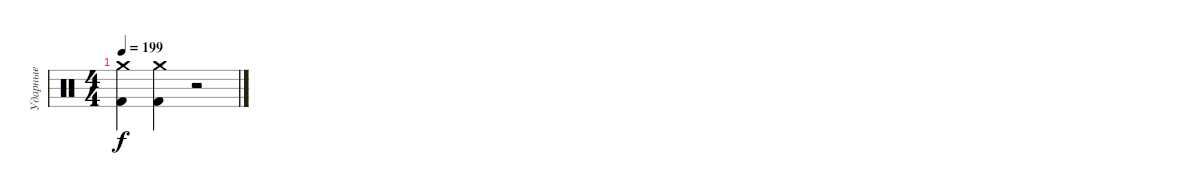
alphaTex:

\track ("Ударные" "Ударные") {instrument percussion}
\staff {score}
\articulation defaults
\ts (4 4)
\tempo 199
\clef neutral
\ks c
("Crash medium (hit)" "Kick (hit) 2").4{dy f} ("Crash medium (hit)" "Kick (hit) 2").4 r.2
